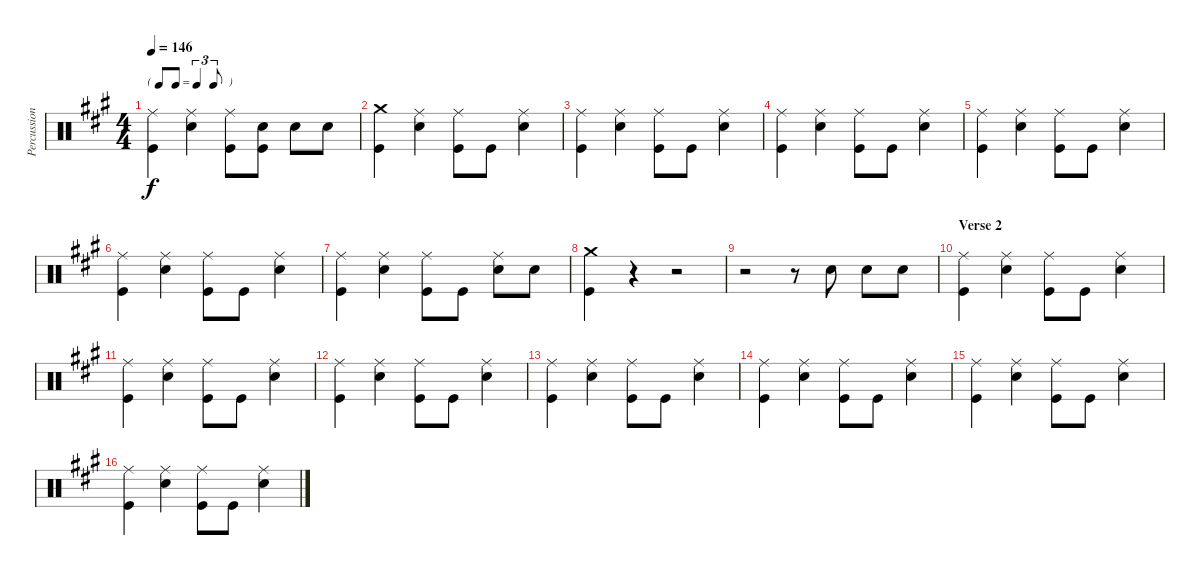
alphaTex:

\track ("Percussion" "Percussion") {instrument percussion}
\staff {score}
\articulation defaults
\ts (4 4)
\tf triplet8th
\tempo 146
\clef neutral
\ks a
("Ride (middle)" "Kick (hit)").4{dy f} ("Ride (middle)" "Snare (hit) 2").4 ("Ride (middle)" "Kick (hit)").8 ("Snare (hit) 2" "Kick (hit)").8 "Snare (hit) 2".8 "Snare (hit) 2".8 |
("Crash medium (hit)" "Kick (hit)").4 ("Ride (middle)" "Snare (hit) 2").4 ("Ride (middle)" "Kick (hit)").8 "Kick (hit)".8 ("Ride (middle)" "Snare (hit) 2").4 |
("Ride (middle)" "Kick (hit)").4 ("Ride (middle)" "Snare (hit) 2").4 ("Ride (middle)" "Kick (hit)").8 "Kick (hit)".8 ("Ride (middle)" "Snare (hit) 2").4 |
("Ride (middle)" "Kick (hit)").4 ("Ride (middle)" "Snare (hit) 2").4 ("Ride (middle)" "Kick (hit)").8 "Kick (hit)".8 ("Ride (middle)" "Snare (hit) 2").4 |
("Ride (middle)" "Kick (hit)").4 ("Ride (middle)" "Snare (hit) 2").4 ("Ride (middle)" "Kick (hit)").8 "Kick (hit)".8 ("Ride (middle)" "Snare (hit) 2").4 |
("Ride (middle)" "Kick (hit)").4 ("Ride (middle)" "Snare (hit) 2").4 ("Ride (middle)" "Kick (hit)").8 "Kick (hit)".8 ("Ride (middle)" "Snare (hit) 2").4 |
("Ride (middle)" "Kick (hit)").4 ("Ride (middle)" "Snare (hit) 2").4 ("Ride (middle)" "Kick (hit)").8 "Kick (hit)".8 ("Ride (middle)" "Snare (hit) 2").8 "Snare (hit) 2".8 |
("Crash medium (hit)" "Kick (hit)").4 r.4 r.2 |
r.2 r.8 "Snare (hit) 2".8 "Snare (hit) 2".8 "Snare (hit) 2".8 |
\section ("" "Verse 2")
("Ride (middle)" "Kick (hit)").4 ("Ride (middle)" "Snare (hit) 2").4 ("Ride (middle)" "Kick (hit)").8 "Kick (hit)".8 ("Ride (middle)" "Snare (hit) 2").4 |
("Ride (middle)" "Kick (hit)").4 ("Ride (middle)" "Snare (hit) 2").4 ("Ride (middle)" "Kick (hit)").8 "Kick (hit)".8 ("Ride (middle)" "Snare (hit) 2").4 |
("Ride (middle)" "Kick (hit)").4 ("Ride (middle)" "Snare (hit) 2").4 ("Ride (middle)" "Kick (hit)").8 "Kick (hit)".8 ("Ride (middle)" "Snare (hit) 2").4 |
("Ride (middle)" "Kick (hit)").4 ("Ride (middle)" "Snare (hit) 2").4 ("Ride (middle)" "Kick (hit)").8 "Kick (hit)".8 ("Ride (middle)" "Snare (hit) 2").4 |
("Ride (middle)" "Kick (hit)").4 ("Ride (middle)" "Snare (hit) 2").4 ("Ride (middle)" "Kick (hit)").8 "Kick (hit)".8 ("Ride (middle)" "Snare (hit) 2").4 |
("Ride (middle)" "Kick (hit)").4 ("Ride (middle)" "Snare (hit) 2").4 ("Ride (middle)" "Kick (hit)").8 "Kick (hit)".8 ("Ride (middle)" "Snare (hit) 2").4 |
("Ride (middle)" "Kick (hit)").4 ("Ride (middle)" "Snare (hit) 2").4 ("Ride (middle)" "Kick (hit)").8 "Kick (hit)".8 ("Ride (middle)" "Snare (hit) 2").4
